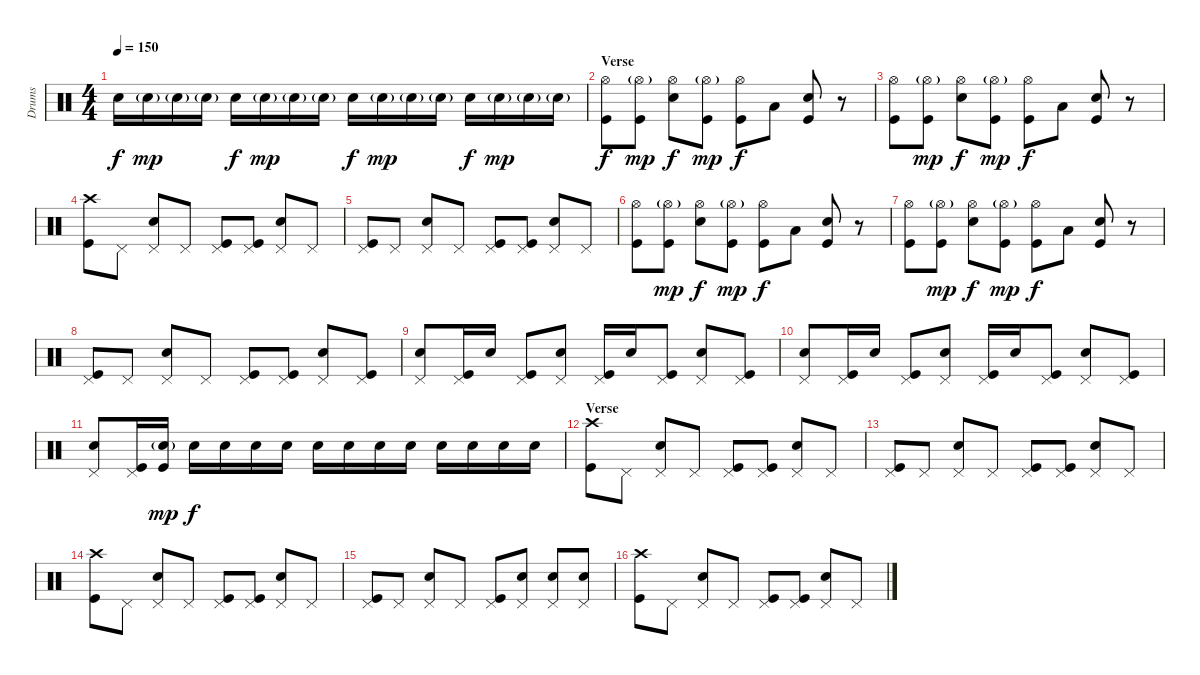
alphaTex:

\track ("Drums" "Drums") {instrument percussion}
\staff {score}
\articulation defaults
\ts (4 4)
\tempo 150
\clef neutral
\ks c "Snare (hit) 2".16{dy f} "Snare (hit) 2"{g}.16{dy mp} "Snare (hit) 2"{g}.16 "Snare (hit) 2"{g}.16 "Snare (hit) 2".16{dy f} "Snare (hit) 2"{g}.16{dy mp} "Snare (hit) 2"{g}.16 "Snare (hit) 2"{g}.16 "Snare (hit) 2".16{dy f} "Snare (hit) 2"{g}.16{dy mp} "Snare (hit) 2"{g}.16 "Snare (hit) 2"{g}.16 "Snare (hit) 2".16{dy f} "Snare (hit) 2"{g}.16{dy mp} "Snare (hit) 2"{g}.16 "Snare (hit) 2"{g}.16
|
\section ("" "Verse")
("Hi-Hat (open)" "Kick (hit)").8{dy f} ("Hi-Hat (open)"{g} "Kick (hit)").8{dy mp} ("Hi-Hat (open)" "Snare (hit) 2").8{dy f} ("Hi-Hat (open)"{g} "Kick (hit)").8{dy mp} ("Hi-Hat (open)" "Kick (hit)").8{dy f} "Low Floor Tom (hit)".8 ("Snare (hit) 2" "Kick (hit)").8 r.8 |
("Hi-Hat (open)" "Kick (hit)").8 ("Hi-Hat (open)"{g} "Kick (hit)").8{dy mp} ("Hi-Hat (open)" "Snare (hit) 2").8{dy f} ("Hi-Hat (open)"{g} "Kick (hit)").8{dy mp} ("Hi-Hat (open)" "Kick (hit)").8{dy f} "Low Floor Tom (hit)".8 ("Snare (hit) 2" "Kick (hit)").8 r.8 |
("Crash high (hit)" "Kick (hit)").8 "Pedal Hi-Hat (hit)".8 ("Pedal Hi-Hat (hit)" "Snare (hit) 2").8 "Pedal Hi-Hat (hit)".8 ("Pedal Hi-Hat (hit)" "Kick (hit)").8 ("Pedal Hi-Hat (hit)" "Kick (hit)").8 ("Pedal Hi-Hat (hit)" "Snare (hit) 2").8 "Pedal Hi-Hat (hit)".8 |
("Pedal Hi-Hat (hit)" "Kick (hit)").8 "Pedal Hi-Hat (hit)".8 ("Pedal Hi-Hat (hit)" "Snare (hit) 2").8 "Pedal Hi-Hat (hit)".8 ("Pedal Hi-Hat (hit)" "Kick (hit)").8 ("Pedal Hi-Hat (hit)" "Kick (hit)").8 ("Pedal Hi-Hat (hit)" "Snare (hit) 2").8 "Pedal Hi-Hat (hit)".8 |
("Hi-Hat (open)" "Kick (hit)").8 ("Hi-Hat (open)"{g} "Kick (hit)").8{dy mp} ("Hi-Hat (open)" "Snare (hit) 2").8{dy f} ("Hi-Hat (open)"{g} "Kick (hit)").8{dy mp} ("Hi-Hat (open)" "Kick (hit)").8{dy f} "Low Floor Tom (hit)".8 ("Snare (hit) 2" "Kick (hit)").8 r.8 |
("Hi-Hat (open)" "Kick (hit)").8 ("Hi-Hat (open)"{g} "Kick (hit)").8{dy mp} ("Hi-Hat (open)" "Snare (hit) 2").8{dy f} ("Hi-Hat (open)"{g} "Kick (hit)").8{dy mp} ("Hi-Hat (open)" "Kick (hit)").8{dy f} "Low Floor Tom (hit)".8 ("Snare (hit) 2" "Kick (hit)").8 r.8 |
("Pedal Hi-Hat (hit)" "Kick (hit)").8 "Pedal Hi-Hat (hit)".8 ("Pedal Hi-Hat (hit)" "Snare (hit) 2").8 "Pedal Hi-Hat (hit)".8 ("Pedal Hi-Hat (hit)" "Kick (hit)").8 ("Pedal Hi-Hat (hit)" "Kick (hit)").8 ("Pedal Hi-Hat (hit)" "Snare (hit) 2").8 ("Pedal Hi-Hat (hit)" "Kick (hit)").8 |
("Snare (hit) 2" "Pedal Hi-Hat (hit)").8 ("Kick (hit)" "Pedal Hi-Hat (hit)").16 "Snare (hit) 2".16 ("Kick (hit)" "Pedal Hi-Hat (hit)").8 ("Snare (hit) 2" "Pedal Hi-Hat (hit)").8 ("Kick (hit)" "Pedal Hi-Hat (hit)").16 "Snare (hit) 2".16 ("Kick (hit)" "Pedal Hi-Hat (hit)").8 ("Snare (hit) 2" "Pedal Hi-Hat (hit)").8 ("Kick (hit)" "Pedal Hi-Hat (hit)").8 |
("Snare (hit) 2" "Pedal Hi-Hat (hit)").8 ("Kick (hit)" "Pedal Hi-Hat (hit)").16 "Snare (hit) 2".16 ("Kick (hit)" "Pedal Hi-Hat (hit)").8 ("Snare (hit) 2" "Pedal Hi-Hat (hit)").8 ("Kick (hit)" "Pedal Hi-Hat (hit)").16 "Snare (hit) 2".16 ("Kick (hit)" "Pedal Hi-Hat (hit)").8 ("Snare (hit) 2" "Pedal Hi-Hat (hit)").8 ("Kick (hit)" "Pedal Hi-Hat (hit)").8 |
("Snare (hit) 2" "Pedal Hi-Hat (hit)").8 ("Kick (hit)" "Pedal Hi-Hat (hit)").16 ("Snare (hit) 2"{g} "Kick (hit)").16{dy mp} "Snare (hit) 2".16{dy f} "Snare (hit) 2".16 "Snare (hit) 2".16 "Snare (hit) 2".16 "Snare (hit) 2".16 "Snare (hit) 2".16 "Snare (hit) 2".16 "Snare (hit) 2".16 "Snare (hit) 2".16 "Snare (hit) 2".16 "Snare (hit) 2".16 "Snare (hit) 2".16 |
\section ("" "Verse")
("Crash high (hit)" "Kick (hit)").8 "Pedal Hi-Hat (hit)".8 ("Pedal Hi-Hat (hit)" "Snare (hit) 2").8 "Pedal Hi-Hat (hit)".8 ("Pedal Hi-Hat (hit)" "Kick (hit)").8 ("Pedal Hi-Hat (hit)" "Kick (hit)").8 ("Pedal Hi-Hat (hit)" "Snare (hit) 2").8 "Pedal Hi-Hat (hit)".8 |
("Pedal Hi-Hat (hit)" "Kick (hit)").8 "Pedal Hi-Hat (hit)".8 ("Pedal Hi-Hat (hit)" "Snare (hit) 2").8 "Pedal Hi-Hat (hit)".8 ("Pedal Hi-Hat (hit)" "Kick (hit)").8 ("Pedal Hi-Hat (hit)" "Kick (hit)").8 ("Pedal Hi-Hat (hit)" "Snare (hit) 2").8 "Pedal Hi-Hat (hit)".8 |
("Crash high (hit)" "Kick (hit)").8 "Pedal Hi-Hat (hit)".8 ("Pedal Hi-Hat (hit)" "Snare (hit) 2").8 "Pedal Hi-Hat (hit)".8 ("Pedal Hi-Hat (hit)" "Kick (hit)").8 ("Pedal Hi-Hat (hit)" "Kick (hit)").8 ("Pedal Hi-Hat (hit)" "Snare (hit) 2").8 "Pedal Hi-Hat (hit)".8 |
("Pedal Hi-Hat (hit)" "Kick (hit)").8 "Pedal Hi-Hat (hit)".8 ("Pedal Hi-Hat (hit)" "Snare (hit) 2").8 "Pedal Hi-Hat (hit)".8 ("Pedal Hi-Hat (hit)" "Kick (hit)").8 ("Pedal Hi-Hat (hit)" "Snare (hit) 2").8 ("Pedal Hi-Hat (hit)" "Snare (hit) 2").8 ("Pedal Hi-Hat (hit)" "Snare (hit) 2").8 |
("Crash high (hit)" "Kick (hit)").8 "Pedal Hi-Hat (hit)".8 ("Pedal Hi-Hat (hit)" "Snare (hit) 2").8 "Pedal Hi-Hat (hit)".8 ("Pedal Hi-Hat (hit)" "Kick (hit)").8 ("Pedal Hi-Hat (hit)" "Kick (hit)").8 ("Pedal Hi-Hat (hit)" "Snare (hit) 2").8 "Pedal Hi-Hat (hit)".8
